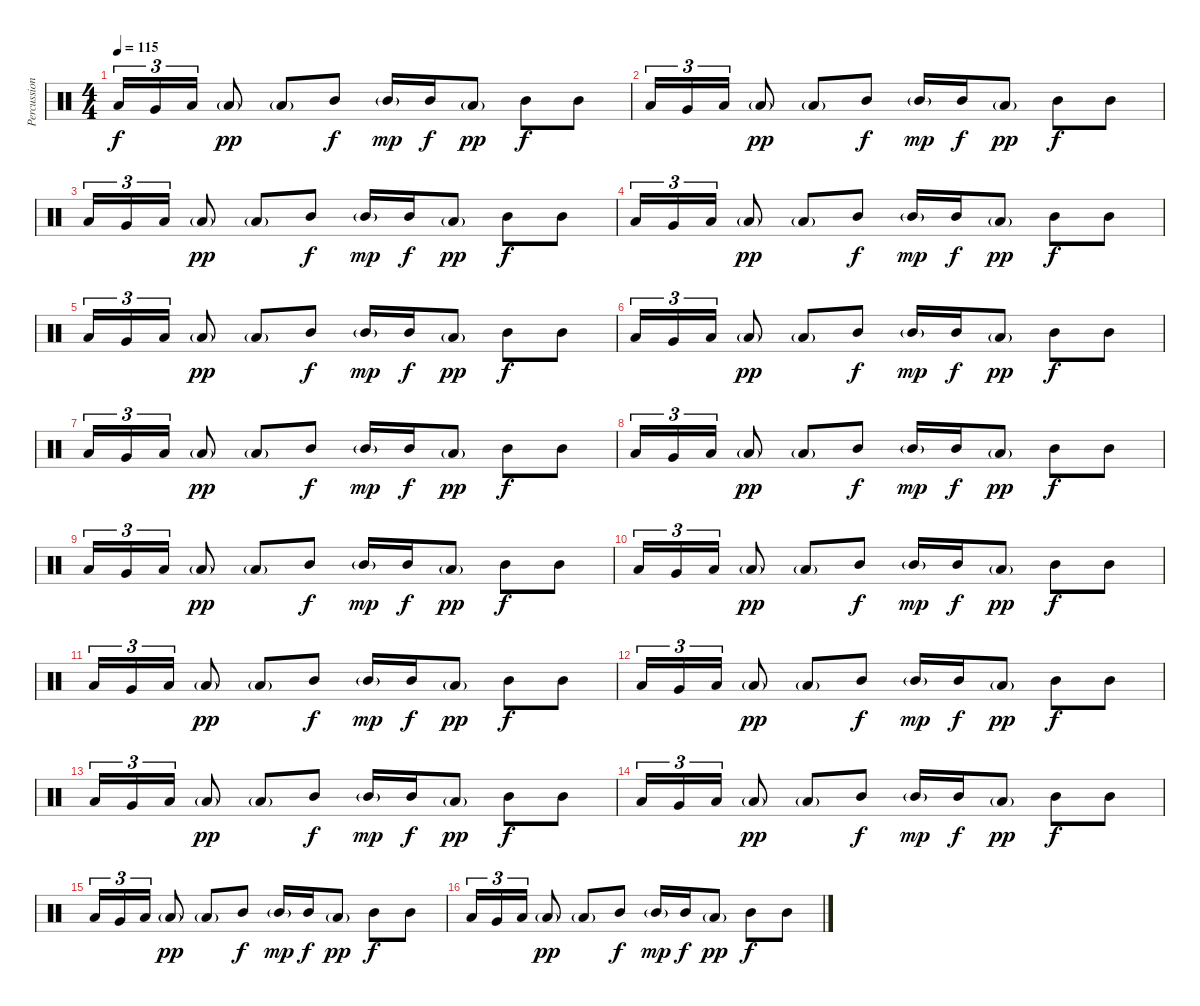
\track ("Percussion - High Tom" "Percussion") {instrument percussion}
\staff {score}
\articulation defaults
\ts (4 4)
\tempo 115
\clef neutral
\ks c "Low Floor Tom (hit)".16{tu (3 2) dy f} "Very Low Tom (hit)".16{tu (3 2)} "Low Floor Tom (hit)".16{tu (3 2)} "Low Tom (hit)"{g}.8{dy pp} "Low Tom (hit)"{g}.8 "Mid Tom (hit)".8{dy f} "Mid Tom (hit)"{g}.16{dy mp} "Mid Tom (hit)".16{dy f} "Low Tom (hit)"{g}.8{dy pp} "Mid Tom (hit)".8{dy f} "Mid Tom (hit)".8
|
"Low Floor Tom (hit)".16{tu (3 2)} "Very Low Tom (hit)".16{tu (3 2)} "Low Floor Tom (hit)".16{tu (3 2)} "Low Tom (hit)"{g}.8{dy pp} "Low Tom (hit)"{g}.8 "Mid Tom (hit)".8{dy f} "Mid Tom (hit)"{g}.16{dy mp} "Mid Tom (hit)".16{dy f} "Low Tom (hit)"{g}.8{dy pp} "Mid Tom (hit)".8{dy f} "Mid Tom (hit)".8 |
"Low Floor Tom (hit)".16{tu (3 2)} "Very Low Tom (hit)".16{tu (3 2)} "Low Floor Tom (hit)".16{tu (3 2)} "Low Tom (hit)"{g}.8{dy pp} "Low Tom (hit)"{g}.8 "Mid Tom (hit)".8{dy f} "Mid Tom (hit)"{g}.16{dy mp} "Mid Tom (hit)".16{dy f} "Low Tom (hit)"{g}.8{dy pp} "Mid Tom (hit)".8{dy f} "Mid Tom (hit)".8 |
"Low Floor Tom (hit)".16{tu (3 2)} "Very Low Tom (hit)".16{tu (3 2)} "Low Floor Tom (hit)".16{tu (3 2)} "Low Tom (hit)"{g}.8{dy pp} "Low Tom (hit)"{g}.8 "Mid Tom (hit)".8{dy f} "Mid Tom (hit)"{g}.16{dy mp} "Mid Tom (hit)".16{dy f} "Low Tom (hit)"{g}.8{dy pp} "Mid Tom (hit)".8{dy f} "Mid Tom (hit)".8 |
"Low Floor Tom (hit)".16{tu (3 2)} "Very Low Tom (hit)".16{tu (3 2)} "Low Floor Tom (hit)".16{tu (3 2)} "Low Tom (hit)"{g}.8{dy pp} "Low Tom (hit)"{g}.8 "Mid Tom (hit)".8{dy f} "Mid Tom (hit)"{g}.16{dy mp} "Mid Tom (hit)".16{dy f} "Low Tom (hit)"{g}.8{dy pp} "Mid Tom (hit)".8{dy f} "Mid Tom (hit)".8 |
"Low Floor Tom (hit)".16{tu (3 2)} "Very Low Tom (hit)".16{tu (3 2)} "Low Floor Tom (hit)".16{tu (3 2)} "Low Tom (hit)"{g}.8{dy pp} "Low Tom (hit)"{g}.8 "Mid Tom (hit)".8{dy f} "Mid Tom (hit)"{g}.16{dy mp} "Mid Tom (hit)".16{dy f} "Low Tom (hit)"{g}.8{dy pp} "Mid Tom (hit)".8{dy f} "Mid Tom (hit)".8 |
"Low Floor Tom (hit)".16{tu (3 2)} "Very Low Tom (hit)".16{tu (3 2)} "Low Floor Tom (hit)".16{tu (3 2)} "Low Tom (hit)"{g}.8{dy pp} "Low Tom (hit)"{g}.8 "Mid Tom (hit)".8{dy f} "Mid Tom (hit)"{g}.16{dy mp} "Mid Tom (hit)".16{dy f} "Low Tom (hit)"{g}.8{dy pp} "Mid Tom (hit)".8{dy f} "Mid Tom (hit)".8 |
"Low Floor Tom (hit)".16{tu (3 2)} "Very Low Tom (hit)".16{tu (3 2)} "Low Floor Tom (hit)".16{tu (3 2)} "Low Tom (hit)"{g}.8{dy pp} "Low Tom (hit)"{g}.8 "Mid Tom (hit)".8{dy f} "Mid Tom (hit)"{g}.16{dy mp} "Mid Tom (hit)".16{dy f} "Low Tom (hit)"{g}.8{dy pp} "Mid Tom (hit)".8{dy f} "Mid Tom (hit)".8 |
"Low Floor Tom (hit)".16{tu (3 2)} "Very Low Tom (hit)".16{tu (3 2)} "Low Floor Tom (hit)".16{tu (3 2)} "Low Tom (hit)"{g}.8{dy pp} "Low Tom (hit)"{g}.8 "Mid Tom (hit)".8{dy f} "Mid Tom (hit)"{g}.16{dy mp} "Mid Tom (hit)".16{dy f} "Low Tom (hit)"{g}.8{dy pp} "Mid Tom (hit)".8{dy f} "Mid Tom (hit)".8 |
"Low Floor Tom (hit)".16{tu (3 2)} "Very Low Tom (hit)".16{tu (3 2)} "Low Floor Tom (hit)".16{tu (3 2)} "Low Tom (hit)"{g}.8{dy pp} "Low Tom (hit)"{g}.8 "Mid Tom (hit)".8{dy f} "Mid Tom (hit)"{g}.16{dy mp} "Mid Tom (hit)".16{dy f} "Low Tom (hit)"{g}.8{dy pp} "Mid Tom (hit)".8{dy f} "Mid Tom (hit)".8 |
"Low Floor Tom (hit)".16{tu (3 2)} "Very Low Tom (hit)".16{tu (3 2)} "Low Floor Tom (hit)".16{tu (3 2)} "Low Tom (hit)"{g}.8{dy pp} "Low Tom (hit)"{g}.8 "Mid Tom (hit)".8{dy f} "Mid Tom (hit)"{g}.16{dy mp} "Mid Tom (hit)".16{dy f} "Low Tom (hit)"{g}.8{dy pp} "Mid Tom (hit)".8{dy f} "Mid Tom (hit)".8 |
"Low Floor Tom (hit)".16{tu (3 2)} "Very Low Tom (hit)".16{tu (3 2)} "Low Floor Tom (hit)".16{tu (3 2)} "Low Tom (hit)"{g}.8{dy pp} "Low Tom (hit)"{g}.8 "Mid Tom (hit)".8{dy f} "Mid Tom (hit)"{g}.16{dy mp} "Mid Tom (hit)".16{dy f} "Low Tom (hit)"{g}.8{dy pp} "Mid Tom (hit)".8{dy f} "Mid Tom (hit)".8 |
"Low Floor Tom (hit)".16{tu (3 2)} "Very Low Tom (hit)".16{tu (3 2)} "Low Floor Tom (hit)".16{tu (3 2)} "Low Tom (hit)"{g}.8{dy pp} "Low Tom (hit)"{g}.8 "Mid Tom (hit)".8{dy f} "Mid Tom (hit)"{g}.16{dy mp} "Mid Tom (hit)".16{dy f} "Low Tom (hit)"{g}.8{dy pp} "Mid Tom (hit)".8{dy f} "Mid Tom (hit)".8 |
"Low Floor Tom (hit)".16{tu (3 2)} "Very Low Tom (hit)".16{tu (3 2)} "Low Floor Tom (hit)".16{tu (3 2)} "Low Tom (hit)"{g}.8{dy pp} "Low Tom (hit)"{g}.8 "Mid Tom (hit)".8{dy f} "Mid Tom (hit)"{g}.16{dy mp} "Mid Tom (hit)".16{dy f} "Low Tom (hit)"{g}.8{dy pp} "Mid Tom (hit)".8{dy f} "Mid Tom (hit)".8 |
"Low Floor Tom (hit)".16{tu (3 2)} "Very Low Tom (hit)".16{tu (3 2)} "Low Floor Tom (hit)".16{tu (3 2)} "Low Tom (hit)"{g}.8{dy pp} "Low Tom (hit)"{g}.8 "Mid Tom (hit)".8{dy f} "Mid Tom (hit)"{g}.16{dy mp} "Mid Tom (hit)".16{dy f} "Low Tom (hit)"{g}.8{dy pp} "Mid Tom (hit)".8{dy f} "Mid Tom (hit)".8 |
"Low Floor Tom (hit)".16{tu (3 2)} "Very Low Tom (hit)".16{tu (3 2)} "Low Floor Tom (hit)".16{tu (3 2)} "Low Tom (hit)"{g}.8{dy pp} "Low Tom (hit)"{g}.8 "Mid Tom (hit)".8{dy f} "Mid Tom (hit)"{g}.16{dy mp} "Mid Tom (hit)".16{dy f} "Low Tom (hit)"{g}.8{dy pp} "Mid Tom (hit)".8{dy f} "Mid Tom (hit)".8
